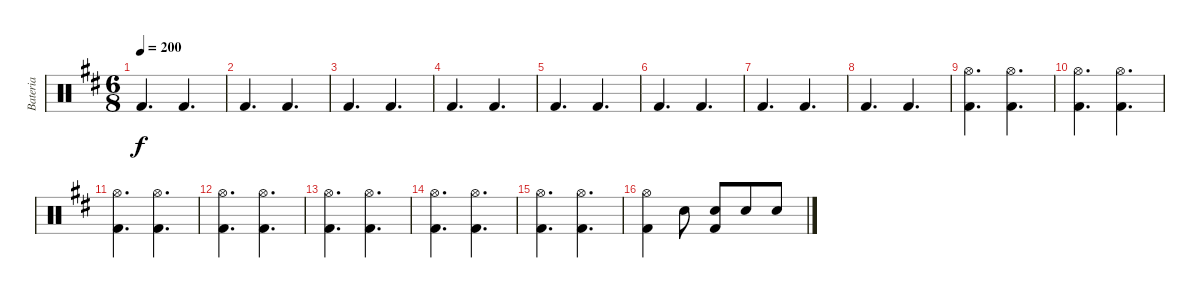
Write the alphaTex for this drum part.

\track ("Bateria" "Bateria") {instrument percussion}
\staff {score}
\articulation defaults
\ts (6 8)
\tempo 200
\clef neutral
\ks bminor "Kick (hit) 2".4{d dy f} "Kick (hit) 2".4{d}
|
"Kick (hit) 2".4{d} "Kick (hit) 2".4{d} |
"Kick (hit) 2".4{d} "Kick (hit) 2".4{d} |
"Kick (hit) 2".4{d} "Kick (hit) 2".4{d} |
"Kick (hit) 2".4{d} "Kick (hit) 2".4{d} |
"Kick (hit) 2".4{d} "Kick (hit) 2".4{d} |
"Kick (hit) 2".4{d} "Kick (hit) 2".4{d} |
"Kick (hit) 2".4{d} "Kick (hit) 2".4{d} |
("Hi-Hat (open)" "Kick (hit) 2").4{d} ("Hi-Hat (open)" "Kick (hit) 2").4{d} |
("Hi-Hat (open)" "Kick (hit) 2").4{d} ("Hi-Hat (open)" "Kick (hit) 2").4{d} |
("Hi-Hat (open)" "Kick (hit) 2").4{d} ("Hi-Hat (open)" "Kick (hit) 2").4{d} |
("Hi-Hat (open)" "Kick (hit) 2").4{d} ("Hi-Hat (open)" "Kick (hit) 2").4{d} |
("Hi-Hat (open)" "Kick (hit) 2").4{d} ("Hi-Hat (open)" "Kick (hit) 2").4{d} |
("Hi-Hat (open)" "Kick (hit) 2").4{d} ("Hi-Hat (open)" "Kick (hit) 2").4{d} |
("Hi-Hat (open)" "Kick (hit) 2").4{d} ("Hi-Hat (open)" "Kick (hit) 2").4{d} |
("Hi-Hat (open)" "Kick (hit) 2").4 "Electric Snare (hit)".8 ("Electric Snare (hit)" "Kick (hit) 2").8 "Electric Snare (hit)".8 "Electric Snare (hit)".8
